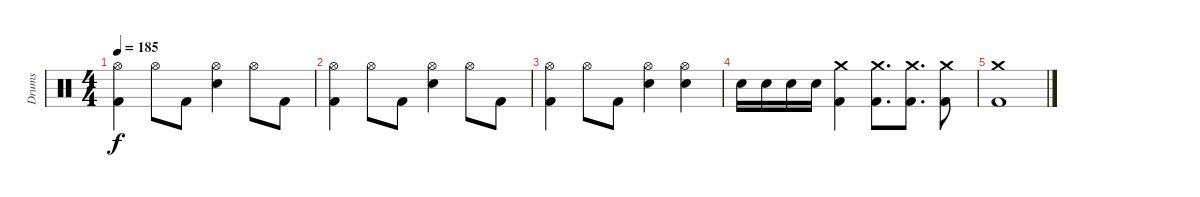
\track ("Drums" "Drums") {instrument percussion}
\staff {score}
\articulation defaults
\ts (4 4)
\tempo 185
\clef neutral
\ks c
("Hi-Hat (open)" "Kick (hit) 2").4{dy f} "Hi-Hat (open)".8 "Kick (hit) 2".8 ("Hi-Hat (open)" "Electric Snare (hit)").4 "Hi-Hat (open)".8 "Kick (hit) 2".8 |
("Hi-Hat (open)" "Kick (hit) 2").4 "Hi-Hat (open)".8 "Kick (hit) 2".8 ("Hi-Hat (open)" "Electric Snare (hit)").4 "Hi-Hat (open)".8 "Kick (hit) 2".8 |
("Hi-Hat (open)" "Kick (hit) 2").4 "Hi-Hat (open)".8 "Kick (hit) 2".8 ("Hi-Hat (open)" "Electric Snare (hit)").4 ("Hi-Hat (open)" "Electric Snare (hit)").4 |
"Electric Snare (hit)".16 "Electric Snare (hit)".16 "Electric Snare (hit)".16 "Electric Snare (hit)".16 ("Crash medium (hit)" "Kick (hit) 2").4 ("Crash medium (hit)" "Kick (hit) 2").8{d} ("Crash medium (hit)" "Kick (hit) 2").8{d} ("Crash medium (hit)" "Kick (hit) 2").8 |
("Crash medium (hit)" "Kick (hit) 2").1
